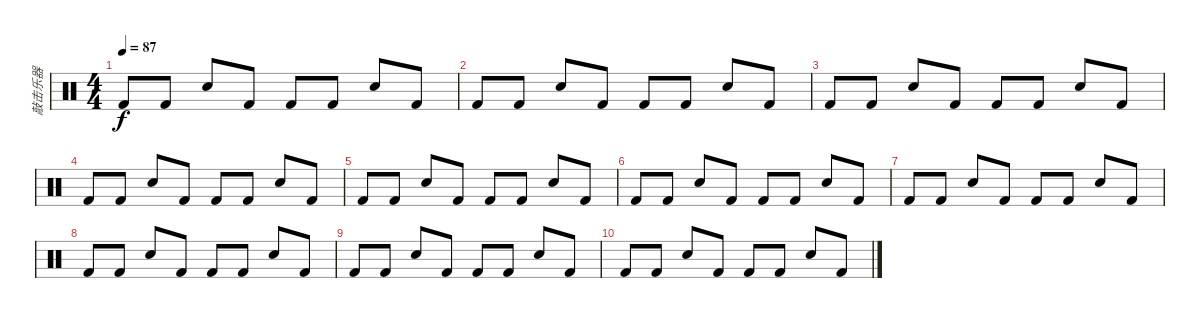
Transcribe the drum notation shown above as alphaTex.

\track ("敲击乐器" "敲击乐器") {instrument percussion}
\staff {score}
\articulation defaults
\ts (4 4)
\tempo 87
\clef neutral
\ks c "Kick (hit) 2".8{dy f} "Kick (hit) 2".8 "Snare (hit) 2".8 "Kick (hit) 2".8 "Kick (hit) 2".8 "Kick (hit) 2".8 "Snare (hit) 2".8 "Kick (hit) 2".8
|
"Kick (hit) 2".8 "Kick (hit) 2".8 "Snare (hit) 2".8 "Kick (hit) 2".8 "Kick (hit) 2".8 "Kick (hit) 2".8 "Snare (hit) 2".8 "Kick (hit) 2".8 |
"Kick (hit) 2".8 "Kick (hit) 2".8 "Snare (hit) 2".8 "Kick (hit) 2".8 "Kick (hit) 2".8 "Kick (hit) 2".8 "Snare (hit) 2".8 "Kick (hit) 2".8 |
"Kick (hit) 2".8 "Kick (hit) 2".8 "Snare (hit) 2".8 "Kick (hit) 2".8 "Kick (hit) 2".8 "Kick (hit) 2".8 "Snare (hit) 2".8 "Kick (hit) 2".8 |
"Kick (hit) 2".8 "Kick (hit) 2".8 "Snare (hit) 2".8 "Kick (hit) 2".8 "Kick (hit) 2".8 "Kick (hit) 2".8 "Snare (hit) 2".8 "Kick (hit) 2".8 |
"Kick (hit) 2".8 "Kick (hit) 2".8 "Snare (hit) 2".8 "Kick (hit) 2".8 "Kick (hit) 2".8 "Kick (hit) 2".8 "Snare (hit) 2".8 "Kick (hit) 2".8 |
"Kick (hit) 2".8 "Kick (hit) 2".8 "Snare (hit) 2".8 "Kick (hit) 2".8 "Kick (hit) 2".8 "Kick (hit) 2".8 "Snare (hit) 2".8 "Kick (hit) 2".8 |
"Kick (hit) 2".8 "Kick (hit) 2".8 "Snare (hit) 2".8 "Kick (hit) 2".8 "Kick (hit) 2".8 "Kick (hit) 2".8 "Snare (hit) 2".8 "Kick (hit) 2".8 |
"Kick (hit) 2".8 "Kick (hit) 2".8 "Snare (hit) 2".8 "Kick (hit) 2".8 "Kick (hit) 2".8 "Kick (hit) 2".8 "Snare (hit) 2".8 "Kick (hit) 2".8 |
"Kick (hit) 2".8 "Kick (hit) 2".8 "Snare (hit) 2".8 "Kick (hit) 2".8 "Kick (hit) 2".8 "Kick (hit) 2".8 "Snare (hit) 2".8 "Kick (hit) 2".8
